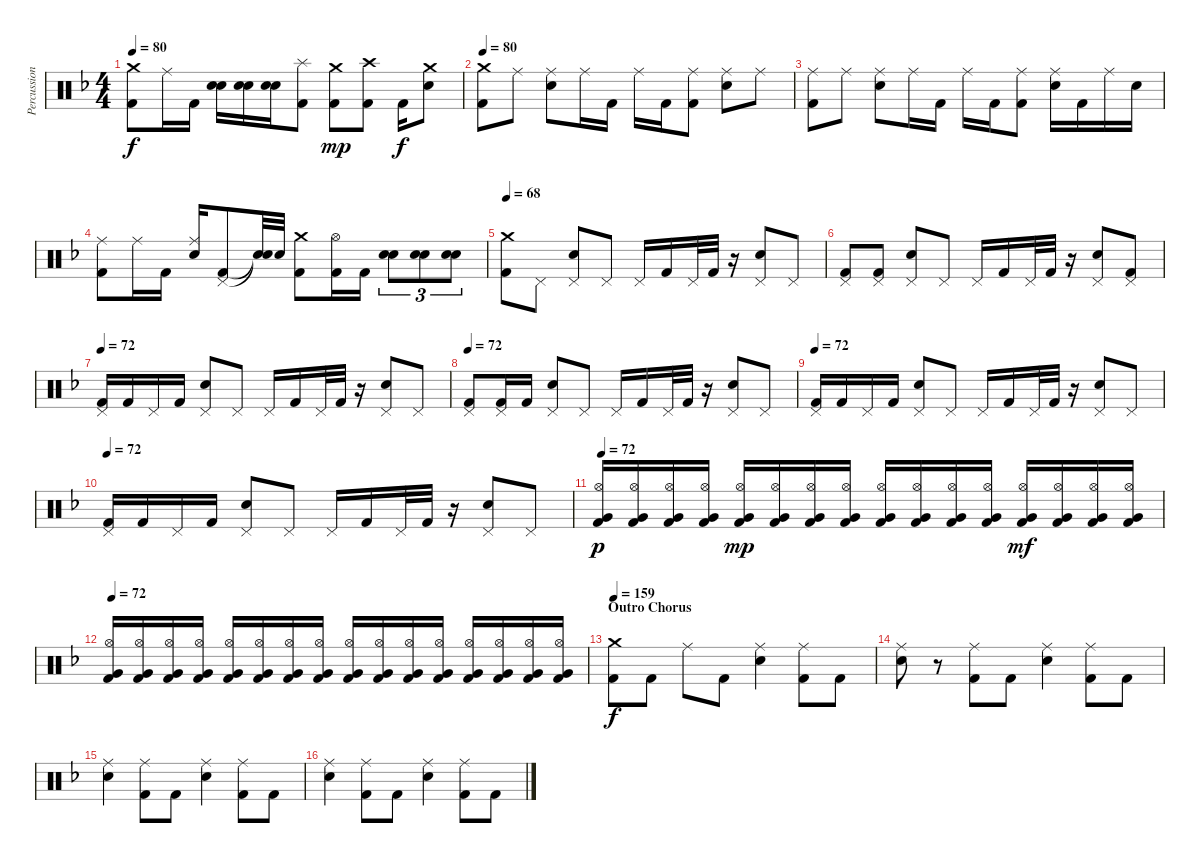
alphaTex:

\track ("Percussion" "Percussion") {instrument percussion}
\staff {score}
\articulation defaults
\ts (4 4)
\tempo 80
\clef neutral
\ks f
("Crash medium (hit)" "Kick (hit) 2").8{dy f} "Ride (middle)".16 "Kick (hit) 2".16 ("Electric Snare (hit)" "Electric Snare (hit)").16 ("Electric Snare (hit)" "Electric Snare (hit)").16 ("Electric Snare (hit)" "Electric Snare (hit)").16 ("Splash (hit)" "Kick (hit) 2").8 ("Crash medium (hit)" "Kick (hit) 2").8{dy mp} ("Crash high (hit)" "Kick (hit) 2").8 "Kick (hit) 2".16{dy f} ("Crash medium (hit)" "Electric Snare (hit)").8 |
\tempo 80
("Crash medium (hit)" "Kick (hit) 2").8 "Ride (middle)".8 ("Ride (middle)" "Electric Snare (hit)").8 "Ride (middle)".16 "Kick (hit) 2".16 "Ride (middle)".16 "Kick (hit) 2".16 ("Ride (middle)" "Kick (hit) 2").8 ("Ride (middle)" "Electric Snare (hit)").8 "Ride (middle)".8 |
("Ride (middle)" "Kick (hit) 2").8 "Ride (middle)".8 ("Ride (middle)" "Electric Snare (hit)").8 "Ride (middle)".16 "Kick (hit) 2".16 "Ride (middle)".16 "Kick (hit) 2".16 ("Ride (middle)" "Kick (hit) 2").8 ("Ride (middle)" "Electric Snare (hit)").16 "Kick (hit) 2".16 "Ride (middle)".16 "Electric Snare (hit)".16 |
("Ride (middle)" "Kick (hit) 2").8 "Ride (middle)".16 "Kick (hit) 2".16 ("Ride (middle)" "Electric Snare (hit)").16 ("Pedal Hi-Hat (hit)" "Kick (hit) 2").8 ("Snare (hit)"{t} "Snare (hit)"{t}).32 "Electric Snare (hit)".32 ("Crash medium (hit)" "Kick (hit) 2").8 ("Hi-Hat (open)" "Kick (hit) 2").16 "Kick (hit) 2".16 ("Electric Snare (hit)" "Electric Snare (hit)").8{tu (3 2)} ("Electric Snare (hit)" "Electric Snare (hit)").8{tu (3 2)} ("Electric Snare (hit)" "Electric Snare (hit)").8{tu (3 2)} |
\tempo 68
("Crash medium (hit)" "Kick (hit) 2").8 "Pedal Hi-Hat (hit)".8 ("Pedal Hi-Hat (hit)" "Electric Snare (hit)").8 "Pedal Hi-Hat (hit)".8 "Pedal Hi-Hat (hit)".16 "Kick (hit) 2".16 "Pedal Hi-Hat (hit)".32 "Kick (hit) 2".32 r.16 ("Pedal Hi-Hat (hit)" "Electric Snare (hit)").8 "Pedal Hi-Hat (hit)".8 |
("Pedal Hi-Hat (hit)" "Kick (hit) 2").8 ("Pedal Hi-Hat (hit)" "Kick (hit) 2").8 ("Pedal Hi-Hat (hit)" "Electric Snare (hit)").8 "Pedal Hi-Hat (hit)".8 "Pedal Hi-Hat (hit)".16 "Kick (hit) 2".16 "Pedal Hi-Hat (hit)".32 "Kick (hit) 2".32 r.16 ("Pedal Hi-Hat (hit)" "Electric Snare (hit)").8 ("Pedal Hi-Hat (hit)" "Kick (hit) 2").8 |
\tempo 72
("Pedal Hi-Hat (hit)" "Kick (hit) 2").16 "Kick (hit) 2".16 "Pedal Hi-Hat (hit)".16 "Kick (hit) 2".16 ("Pedal Hi-Hat (hit)" "Electric Snare (hit)").8 "Pedal Hi-Hat (hit)".8 "Pedal Hi-Hat (hit)".16 "Kick (hit) 2".16 "Pedal Hi-Hat (hit)".32 "Kick (hit) 2".32 r.16 ("Pedal Hi-Hat (hit)" "Electric Snare (hit)").8 "Pedal Hi-Hat (hit)".8 |
\tempo 72
("Pedal Hi-Hat (hit)" "Kick (hit) 2").8 ("Pedal Hi-Hat (hit)" "Kick (hit) 2").16 "Kick (hit) 2".16 ("Pedal Hi-Hat (hit)" "Electric Snare (hit)").8 "Pedal Hi-Hat (hit)".8 "Pedal Hi-Hat (hit)".16 "Kick (hit) 2".16 "Pedal Hi-Hat (hit)".32 "Kick (hit) 2".32 r.16 ("Pedal Hi-Hat (hit)" "Electric Snare (hit)").8 "Pedal Hi-Hat (hit)".8 |
\tempo 72
("Pedal Hi-Hat (hit)" "Kick (hit) 2").16 "Kick (hit) 2".16 "Pedal Hi-Hat (hit)".16 "Kick (hit) 2".16 ("Pedal Hi-Hat (hit)" "Electric Snare (hit)").8 "Pedal Hi-Hat (hit)".8 "Pedal Hi-Hat (hit)".16 "Kick (hit) 2".16 "Pedal Hi-Hat (hit)".32 "Kick (hit) 2".32 r.16 ("Pedal Hi-Hat (hit)" "Electric Snare (hit)").8 "Pedal Hi-Hat (hit)".8 |
\tempo 72
("Pedal Hi-Hat (hit)" "Kick (hit) 2").16 "Kick (hit) 2".16 "Pedal Hi-Hat (hit)".16 "Kick (hit) 2".16 ("Pedal Hi-Hat (hit)" "Electric Snare (hit)").8 "Pedal Hi-Hat (hit)".8 "Pedal Hi-Hat (hit)".16 "Kick (hit) 2".16 "Pedal Hi-Hat (hit)".32 "Kick (hit) 2".32 r.16 ("Pedal Hi-Hat (hit)" "Electric Snare (hit)").8 "Pedal Hi-Hat (hit)".8 |
\tempo 79
\tempo 72
("Hi-Hat (open)" "Very Low Tom (hit)" "Kick (hit) 2").16{dy p} ("Hi-Hat (open)" "Very Low Tom (hit)" "Kick (hit) 2").16 ("Hi-Hat (open)" "Very Low Tom (hit)" "Kick (hit) 2").16 ("Hi-Hat (open)" "Very Low Tom (hit)" "Kick (hit) 2").16 ("Hi-Hat (open)" "Very Low Tom (hit)" "Kick (hit) 2").16{dy mp} ("Hi-Hat (open)" "Very Low Tom (hit)" "Kick (hit) 2").16 ("Hi-Hat (open)" "Very Low Tom (hit)" "Kick (hit) 2").16 ("Hi-Hat (open)" "Very Low Tom (hit)" "Kick (hit) 2").16 ("Hi-Hat (open)" "Very Low Tom (hit)" "Kick (hit) 2").16 ("Hi-Hat (open)" "Very Low Tom (hit)" "Kick (hit) 2").16 ("Hi-Hat (open)" "Very Low Tom (hit)" "Kick (hit) 2").16 ("Hi-Hat (open)" "Very Low Tom (hit)" "Kick (hit) 2").16 ("Hi-Hat (open)" "Very Low Tom (hit)" "Kick (hit) 2").16{dy mf} ("Hi-Hat (open)" "Very Low Tom (hit)" "Kick (hit) 2").16 ("Hi-Hat (open)" "Very Low Tom (hit)" "Kick (hit) 2").16 ("Hi-Hat (open)" "Very Low Tom (hit)" "Kick (hit) 2").16 |
\tempo 72
("Hi-Hat (open)" "Very Low Tom (hit)" "Kick (hit) 2").16 ("Hi-Hat (open)" "Very Low Tom (hit)" "Kick (hit) 2").16 ("Hi-Hat (open)" "Very Low Tom (hit)" "Kick (hit) 2").16 ("Hi-Hat (open)" "Very Low Tom (hit)" "Kick (hit) 2").16 ("Hi-Hat (open)" "Very Low Tom (hit)" "Kick (hit) 2").16 ("Hi-Hat (open)" "Very Low Tom (hit)" "Kick (hit) 2").16 ("Hi-Hat (open)" "Very Low Tom (hit)" "Kick (hit) 2").16 ("Hi-Hat (open)" "Very Low Tom (hit)" "Kick (hit) 2").16 ("Hi-Hat (open)" "Very Low Tom (hit)" "Kick (hit) 2").16 ("Hi-Hat (open)" "Very Low Tom (hit)" "Kick (hit) 2").16 ("Hi-Hat (open)" "Very Low Tom (hit)" "Kick (hit) 2").16 ("Hi-Hat (open)" "Very Low Tom (hit)" "Kick (hit) 2").16 ("Hi-Hat (open)" "Very Low Tom (hit)" "Kick (hit) 2").16 ("Hi-Hat (open)" "Very Low Tom (hit)" "Kick (hit) 2").16 ("Hi-Hat (open)" "Very Low Tom (hit)" "Kick (hit) 2").16 ("Hi-Hat (open)" "Very Low Tom (hit)" "Kick (hit) 2").16 |
\section ("" "Outro Chorus")
\tempo 159
("Crash medium (hit)" "Kick (hit) 2").8{dy f} "Kick (hit) 2".8 "Ride (middle)".8 "Kick (hit) 2".8 ("Ride (middle)" "Electric Snare (hit)").4 ("Ride (middle)" "Kick (hit) 2").8 "Kick (hit) 2".8 |
("Ride (middle)" "Electric Snare (hit)").8 r.8 ("Ride (middle)" "Kick (hit) 2").8 "Kick (hit) 2".8 ("Ride (middle)" "Electric Snare (hit)").4 ("Ride (middle)" "Kick (hit) 2").8 "Kick (hit) 2".8 |
("Ride (middle)" "Electric Snare (hit)").4 ("Ride (middle)" "Kick (hit) 2").8 "Kick (hit) 2".8 ("Ride (middle)" "Electric Snare (hit)").4 ("Ride (middle)" "Kick (hit) 2").8 "Kick (hit) 2".8 |
("Ride (middle)" "Electric Snare (hit)").4 ("Ride (middle)" "Kick (hit) 2").8 "Kick (hit) 2".8 ("Ride (middle)" "Electric Snare (hit)").4 ("Ride (middle)" "Kick (hit) 2").8 "Kick (hit) 2".8
